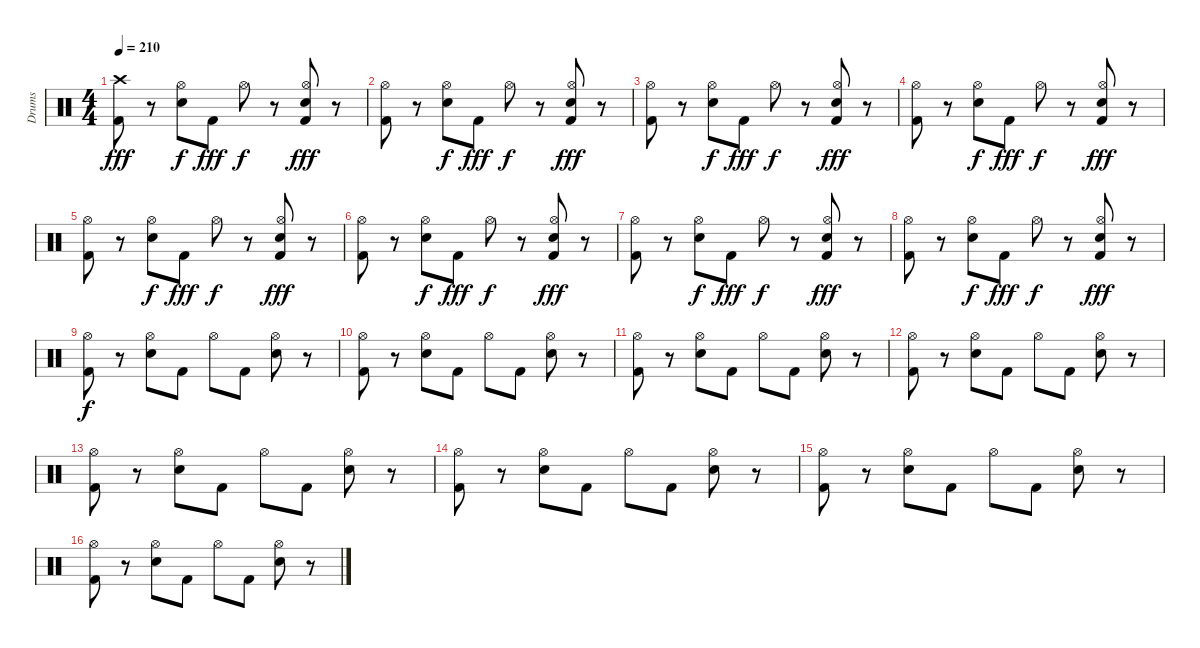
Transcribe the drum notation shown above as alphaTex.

\track ("Drums" "Drums") {instrument percussion}
\staff {score}
\articulation defaults
\ts (4 4)
\tempo 210
\clef neutral
\ks c
("Crash high (hit)" "Kick (hit) 2").8{dy fff} r.8 ("Hi-Hat (open)" "Electric Snare (hit)").8{dy f} "Kick (hit) 2".8{dy fff} "Hi-Hat (open)".8{dy f} r.8 ("Hi-Hat (open)" "Electric Snare (hit)" "Kick (hit) 2").8{dy fff} r.8 |
("Hi-Hat (open)" "Kick (hit) 2").8 r.8 ("Hi-Hat (open)" "Electric Snare (hit)").8{dy f} "Kick (hit) 2".8{dy fff} "Hi-Hat (open)".8{dy f} r.8 ("Hi-Hat (open)" "Electric Snare (hit)" "Kick (hit) 2").8{dy fff} r.8 |
("Hi-Hat (open)" "Kick (hit) 2").8 r.8 ("Hi-Hat (open)" "Electric Snare (hit)").8{dy f} "Kick (hit) 2".8{dy fff} "Hi-Hat (open)".8{dy f} r.8 ("Hi-Hat (open)" "Electric Snare (hit)" "Kick (hit) 2").8{dy fff} r.8 |
("Hi-Hat (open)" "Kick (hit) 2").8 r.8 ("Hi-Hat (open)" "Electric Snare (hit)").8{dy f} "Kick (hit) 2".8{dy fff} "Hi-Hat (open)".8{dy f} r.8 ("Hi-Hat (open)" "Electric Snare (hit)" "Kick (hit) 2").8{dy fff} r.8 |
("Hi-Hat (open)" "Kick (hit) 2").8 r.8 ("Hi-Hat (open)" "Electric Snare (hit)").8{dy f} "Kick (hit) 2".8{dy fff} "Hi-Hat (open)".8{dy f} r.8 ("Hi-Hat (open)" "Electric Snare (hit)" "Kick (hit) 2").8{dy fff} r.8 |
("Hi-Hat (open)" "Kick (hit) 2").8 r.8 ("Hi-Hat (open)" "Electric Snare (hit)").8{dy f} "Kick (hit) 2".8{dy fff} "Hi-Hat (open)".8{dy f} r.8 ("Hi-Hat (open)" "Electric Snare (hit)" "Kick (hit) 2").8{dy fff} r.8 |
("Hi-Hat (open)" "Kick (hit) 2").8 r.8 ("Hi-Hat (open)" "Electric Snare (hit)").8{dy f} "Kick (hit) 2".8{dy fff} "Hi-Hat (open)".8{dy f} r.8 ("Hi-Hat (open)" "Electric Snare (hit)" "Kick (hit) 2").8{dy fff} r.8 |
("Hi-Hat (open)" "Kick (hit) 2").8 r.8 ("Hi-Hat (open)" "Electric Snare (hit)").8{dy f} "Kick (hit) 2".8{dy fff} "Hi-Hat (open)".8{dy f} r.8 ("Hi-Hat (open)" "Electric Snare (hit)" "Kick (hit) 2").8{dy fff} r.8 |
("Hi-Hat (open)" "Kick (hit) 2").8{dy f} r.8 ("Hi-Hat (open)" "Electric Snare (hit)").8 "Kick (hit) 2".8 "Hi-Hat (open)".8 "Kick (hit) 2".8 ("Hi-Hat (open)" "Electric Snare (hit)").8 r.8 |
("Hi-Hat (open)" "Kick (hit) 2").8 r.8 ("Hi-Hat (open)" "Electric Snare (hit)").8 "Kick (hit) 2".8 "Hi-Hat (open)".8 "Kick (hit) 2".8 ("Hi-Hat (open)" "Electric Snare (hit)").8 r.8 |
("Hi-Hat (open)" "Kick (hit) 2").8 r.8 ("Hi-Hat (open)" "Electric Snare (hit)").8 "Kick (hit) 2".8 "Hi-Hat (open)".8 "Kick (hit) 2".8 ("Hi-Hat (open)" "Electric Snare (hit)").8 r.8 |
("Hi-Hat (open)" "Kick (hit) 2").8 r.8 ("Hi-Hat (open)" "Electric Snare (hit)").8 "Kick (hit) 2".8 "Hi-Hat (open)".8 "Kick (hit) 2".8 ("Hi-Hat (open)" "Electric Snare (hit)").8 r.8 |
("Hi-Hat (open)" "Kick (hit) 2").8 r.8 ("Hi-Hat (open)" "Electric Snare (hit)").8 "Kick (hit) 2".8 "Hi-Hat (open)".8 "Kick (hit) 2".8 ("Hi-Hat (open)" "Electric Snare (hit)").8 r.8 |
("Hi-Hat (open)" "Kick (hit) 2").8 r.8 ("Hi-Hat (open)" "Electric Snare (hit)").8 "Kick (hit) 2".8 "Hi-Hat (open)".8 "Kick (hit) 2".8 ("Hi-Hat (open)" "Electric Snare (hit)").8 r.8 |
("Hi-Hat (open)" "Kick (hit) 2").8 r.8 ("Hi-Hat (open)" "Electric Snare (hit)").8 "Kick (hit) 2".8 "Hi-Hat (open)".8 "Kick (hit) 2".8 ("Hi-Hat (open)" "Electric Snare (hit)").8 r.8 |
("Hi-Hat (open)" "Kick (hit) 2").8 r.8 ("Hi-Hat (open)" "Electric Snare (hit)").8 "Kick (hit) 2".8 "Hi-Hat (open)".8 "Kick (hit) 2".8 ("Hi-Hat (open)" "Electric Snare (hit)").8 r.8
